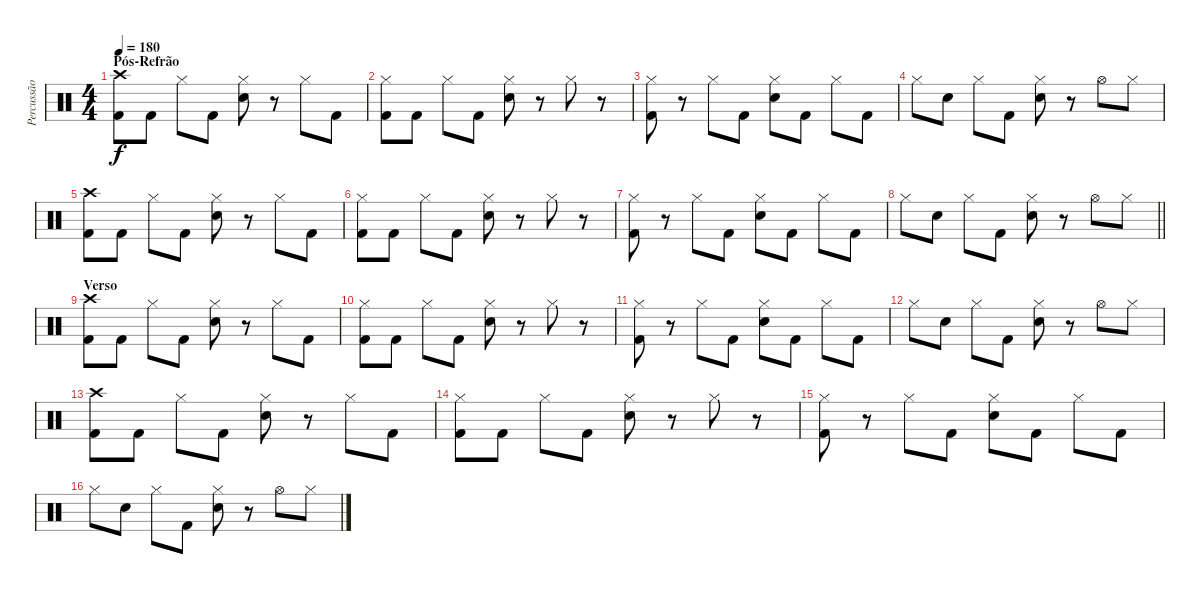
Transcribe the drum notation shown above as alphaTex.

\track ("Percussão" "Percussão") {instrument percussion}
\staff {score}
\articulation defaults
\ts (4 4)
\section ("" "Pós-Refrão")
\tempo 180
\clef neutral
\ks c
("Crash high (hit)" "Kick (hit) 2").8{dy f} "Kick (hit) 2".8 "Hi-Hat (closed)".8 "Kick (hit) 2".8 ("Hi-Hat (closed)" "Electric Snare (hit)").8 r.8 "Hi-Hat (closed)".8 "Kick (hit) 2".8 |
("Hi-Hat (closed)" "Kick (hit) 2").8 "Kick (hit) 2".8 "Hi-Hat (closed)".8 "Kick (hit) 2".8 ("Hi-Hat (closed)" "Electric Snare (hit)").8 r.8 "Hi-Hat (closed)".8 r.8 |
("Hi-Hat (closed)" "Kick (hit) 2").8 r.8 "Hi-Hat (closed)".8 "Kick (hit) 2".8 ("Hi-Hat (closed)" "Electric Snare (hit)").8 "Kick (hit) 2".8 "Hi-Hat (closed)".8 "Kick (hit) 2".8 |
"Hi-Hat (closed)".8 "Electric Snare (hit)".8 "Hi-Hat (closed)".8 "Kick (hit) 2".8 ("Hi-Hat (closed)" "Electric Snare (hit)").8 r.8 "Hi-Hat (open)".8 "Hi-Hat (closed)".8 |
("Crash high (hit)" "Kick (hit) 2").8 "Kick (hit) 2".8 "Hi-Hat (closed)".8 "Kick (hit) 2".8 ("Hi-Hat (closed)" "Electric Snare (hit)").8 r.8 "Hi-Hat (closed)".8 "Kick (hit) 2".8 |
("Hi-Hat (closed)" "Kick (hit) 2").8 "Kick (hit) 2".8 "Hi-Hat (closed)".8 "Kick (hit) 2".8 ("Hi-Hat (closed)" "Electric Snare (hit)").8 r.8 "Hi-Hat (closed)".8 r.8 |
("Hi-Hat (closed)" "Kick (hit) 2").8 r.8 "Hi-Hat (closed)".8 "Kick (hit) 2".8 ("Hi-Hat (closed)" "Electric Snare (hit)").8 "Kick (hit) 2".8 "Hi-Hat (closed)".8 "Kick (hit) 2".8 |
\barLineRight lightlight "Hi-Hat (closed)".8 "Electric Snare (hit)".8 "Hi-Hat (closed)".8 "Kick (hit) 2".8
("Hi-Hat (closed)" "Electric Snare (hit)").8 r.8 "Hi-Hat (open)".8 "Hi-Hat (closed)".8 |
\section ("" "Verso")
("Crash high (hit)" "Kick (hit) 2").8 "Kick (hit) 2".8 "Hi-Hat (closed)".8 "Kick (hit) 2".8 ("Hi-Hat (closed)" "Electric Snare (hit)").8 r.8 "Hi-Hat (closed)".8 "Kick (hit) 2".8 |
("Hi-Hat (closed)" "Kick (hit) 2").8 "Kick (hit) 2".8 "Hi-Hat (closed)".8 "Kick (hit) 2".8 ("Hi-Hat (closed)" "Electric Snare (hit)").8 r.8 "Hi-Hat (closed)".8 r.8 |
("Hi-Hat (closed)" "Kick (hit) 2").8 r.8 "Hi-Hat (closed)".8 "Kick (hit) 2".8 ("Hi-Hat (closed)" "Electric Snare (hit)").8 "Kick (hit) 2".8 "Hi-Hat (closed)".8 "Kick (hit) 2".8 |
"Hi-Hat (closed)".8 "Electric Snare (hit)".8 "Hi-Hat (closed)".8 "Kick (hit) 2".8 ("Hi-Hat (closed)" "Electric Snare (hit)").8 r.8 "Hi-Hat (open)".8 "Hi-Hat (closed)".8 |
("Crash high (hit)" "Kick (hit) 2").8 "Kick (hit) 2".8 "Hi-Hat (closed)".8 "Kick (hit) 2".8 ("Hi-Hat (closed)" "Electric Snare (hit)").8 r.8 "Hi-Hat (closed)".8 "Kick (hit) 2".8 |
("Hi-Hat (closed)" "Kick (hit) 2").8 "Kick (hit) 2".8 "Hi-Hat (closed)".8 "Kick (hit) 2".8 ("Hi-Hat (closed)" "Electric Snare (hit)").8 r.8 "Hi-Hat (closed)".8 r.8 |
("Hi-Hat (closed)" "Kick (hit) 2").8 r.8 "Hi-Hat (closed)".8 "Kick (hit) 2".8 ("Hi-Hat (closed)" "Electric Snare (hit)").8 "Kick (hit) 2".8 "Hi-Hat (closed)".8 "Kick (hit) 2".8 |
"Hi-Hat (closed)".8 "Electric Snare (hit)".8 "Hi-Hat (closed)".8 "Kick (hit) 2".8 ("Hi-Hat (closed)" "Electric Snare (hit)").8 r.8 "Hi-Hat (open)".8 "Hi-Hat (closed)".8
